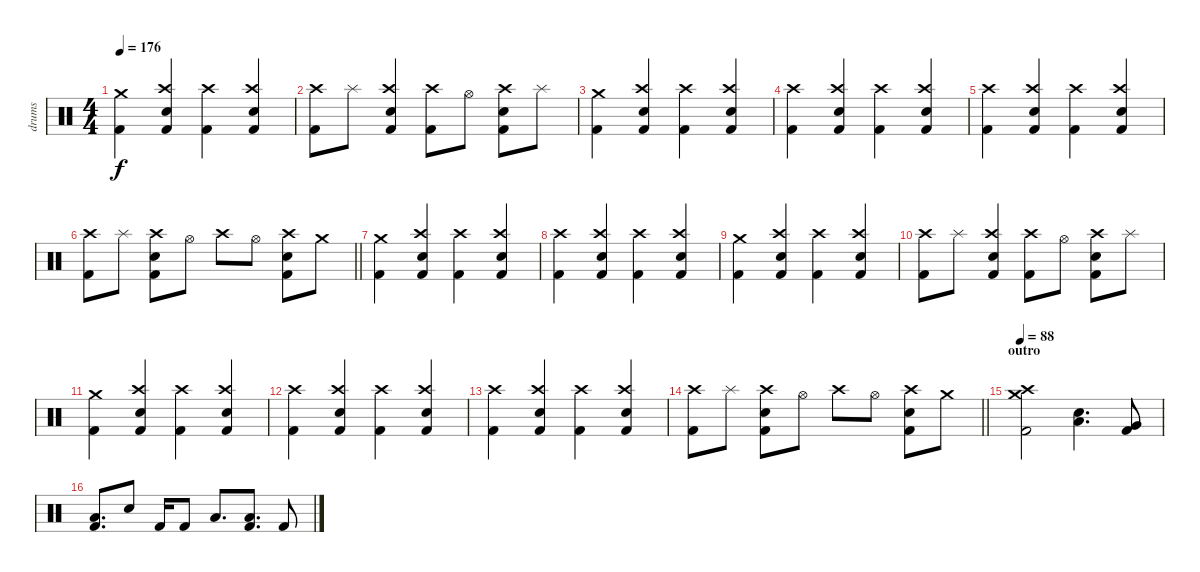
\track ("drums" "drums") {instrument percussion}
\staff {score}
\articulation defaults
\ts (4 4)
\tempo 176
\clef neutral
\ks c
("Crash medium (hit)" "Kick (hit) 2").4{dy f} ("Crash high (hit)" "Snare (hit) 2" "Kick (hit) 2").4 ("Crash high (hit)" "Kick (hit) 2").4 ("Crash high (hit)" "Snare (hit) 2" "Kick (hit) 2").4 |
("Crash high (hit)" "Kick (hit) 2").8 "Splash (hit)".8 ("Crash high (hit)" "Kick (hit) 2" "Snare (hit) 2").4 ("Crash high (hit)" "Kick (hit) 2").8 "Hi-Hat (open)".8 ("Crash high (hit)" "Snare (hit) 2" "Kick (hit) 2").8 "Splash (hit)".8 |
("Crash medium (hit)" "Kick (hit) 2").4 ("Crash high (hit)" "Snare (hit) 2" "Kick (hit) 2").4 ("Crash high (hit)" "Kick (hit) 2").4 ("Crash high (hit)" "Snare (hit) 2" "Kick (hit) 2").4 |
("Crash high (hit)" "Kick (hit) 2").4 ("Crash high (hit)" "Snare (hit) 2" "Kick (hit) 2").4 ("Crash high (hit)" "Kick (hit) 2").4 ("Crash high (hit)" "Snare (hit) 2" "Kick (hit) 2").4 |
("Crash high (hit)" "Kick (hit) 2").4 ("Crash high (hit)" "Snare (hit) 2" "Kick (hit) 2").4 ("Crash high (hit)" "Kick (hit) 2").4 ("Crash high (hit)" "Snare (hit) 2" "Kick (hit) 2").4 |
\barLineRight lightlight
("Crash high (hit)" "Kick (hit) 2").8 "Splash (hit)".8 ("Crash high (hit)" "Snare (hit) 2" "Kick (hit) 2").8 "Hi-Hat (open)".8 "Crash high (hit)".8 "Hi-Hat (open)".8 ("Crash high (hit)" "Snare (hit) 2" "Kick (hit) 2").8 "Crash medium (hit)".8 |
("Crash medium (hit)" "Kick (hit) 2").4 ("Crash high (hit)" "Snare (hit) 2" "Kick (hit) 2").4 ("Crash high (hit)" "Kick (hit) 2").4 ("Crash high (hit)" "Snare (hit) 2" "Kick (hit) 2").4 |
("Crash high (hit)" "Kick (hit) 2").4 ("Crash high (hit)" "Snare (hit) 2" "Kick (hit) 2").4 ("Crash high (hit)" "Kick (hit) 2").4 ("Crash high (hit)" "Snare (hit) 2" "Kick (hit) 2").4 |
("Crash medium (hit)" "Kick (hit) 2").4 ("Crash high (hit)" "Snare (hit) 2" "Kick (hit) 2").4 ("Crash high (hit)" "Kick (hit) 2").4 ("Crash high (hit)" "Snare (hit) 2" "Kick (hit) 2").4 |
("Crash high (hit)" "Kick (hit) 2").8 "Splash (hit)".8 ("Crash high (hit)" "Kick (hit) 2" "Snare (hit) 2").4 ("Crash high (hit)" "Kick (hit) 2").8 "Hi-Hat (open)".8 ("Crash high (hit)" "Snare (hit) 2" "Kick (hit) 2").8 "Splash (hit)".8 |
("Crash medium (hit)" "Kick (hit) 2").4 ("Crash high (hit)" "Snare (hit) 2" "Kick (hit) 2").4 ("Crash high (hit)" "Kick (hit) 2").4 ("Crash high (hit)" "Snare (hit) 2" "Kick (hit) 2").4 |
("Crash high (hit)" "Kick (hit) 2").4 ("Crash high (hit)" "Snare (hit) 2" "Kick (hit) 2").4 ("Crash high (hit)" "Kick (hit) 2").4 ("Crash high (hit)" "Snare (hit) 2" "Kick (hit) 2").4 |
("Crash high (hit)" "Kick (hit) 2").4 ("Crash high (hit)" "Snare (hit) 2" "Kick (hit) 2").4 ("Crash high (hit)" "Kick (hit) 2").4 ("Crash high (hit)" "Snare (hit) 2" "Kick (hit) 2").4 |
\barLineRight lightlight
("Crash high (hit)" "Kick (hit) 2").8 "Splash (hit)".8 ("Crash high (hit)" "Snare (hit) 2" "Kick (hit) 2").8 "Hi-Hat (open)".8 "Crash high (hit)".8 "Hi-Hat (open)".8 ("Crash high (hit)" "Snare (hit) 2" "Kick (hit) 2").8 "Crash medium (hit)".8 |
\section ("" "outro")
\tempo 88
("Crash medium (hit)" "Crash high (hit)" "Kick (hit) 2").2 ("Low Tom (hit)" "Snare (hit) 2").4{d} ("Kick (hit) 2" "Very Low Tom (hit)").8 |
("Kick (hit) 2" "Low Floor Tom (hit)").8{d} "Snare (hit) 2".8 "Kick (hit) 2".16 "Kick (hit) 2".8 "Low Floor Tom (hit)".8{d} ("Low Floor Tom (hit)" "Kick (hit) 2").8{d} "Kick (hit) 2".8
